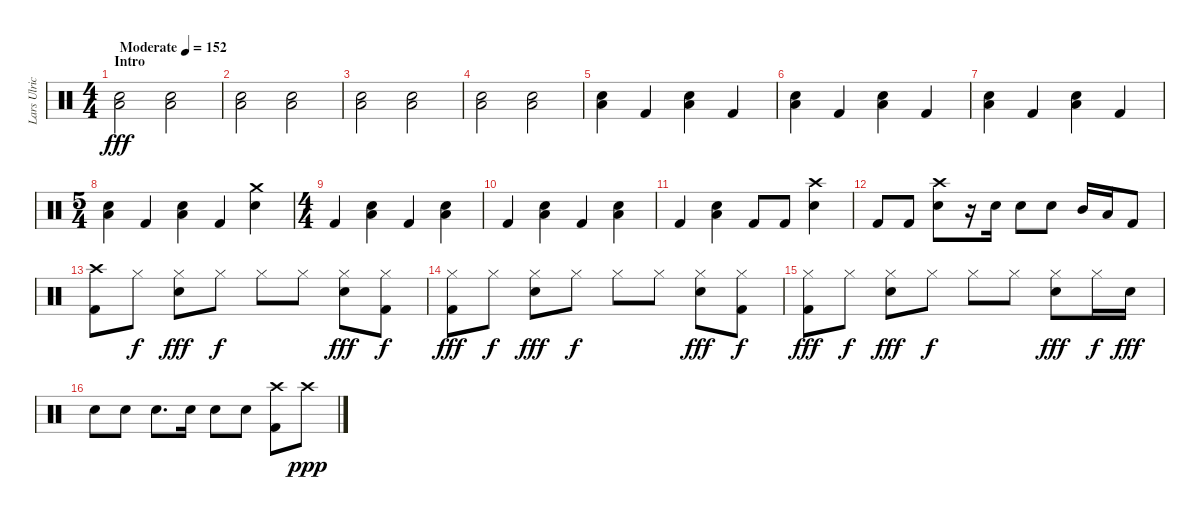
\track ("Lars Ulrich" "Lars Ulric") {instrument percussion}
\staff {score}
\articulation defaults
\ts (4 4)
\section ("" "Intro")
\tempo (152 "Moderate")
\clef neutral
\ks c
("Snare (hit) 2" "Low Floor Tom (hit)").2{dy fff} ("Snare (hit) 2" "Low Floor Tom (hit)").2 |
("Snare (hit) 2" "Low Floor Tom (hit)").2 ("Snare (hit) 2" "Low Floor Tom (hit)").2 |
("Snare (hit) 2" "Low Floor Tom (hit)").2 ("Snare (hit) 2" "Low Floor Tom (hit)").2 |
("Snare (hit) 2" "Low Floor Tom (hit)").2 ("Snare (hit) 2" "Low Floor Tom (hit)").2 |
("Snare (hit) 2" "Low Floor Tom (hit)").4 "Kick (hit) 2".4 ("Snare (hit) 2" "Low Floor Tom (hit)").4 "Kick (hit) 2".4 |
("Snare (hit) 2" "Low Floor Tom (hit)").4 "Kick (hit) 2".4 ("Snare (hit) 2" "Low Floor Tom (hit)").4 "Kick (hit) 2".4 |
("Snare (hit) 2" "Low Floor Tom (hit)").4 "Kick (hit) 2".4 ("Snare (hit) 2" "Low Floor Tom (hit)").4 "Kick (hit) 2".4 |
\ts (5 4)
("Snare (hit) 2" "Low Floor Tom (hit)").4 "Kick (hit) 2".4 ("Snare (hit) 2" "Low Floor Tom (hit)").4 "Kick (hit) 2".4 ("Crash medium (hit)" "Snare (hit) 2").4 |
\ts (4 4)
"Kick (hit) 2".4 ("Low Floor Tom (hit)" "Snare (hit) 2").4 "Kick (hit) 2".4 ("Low Floor Tom (hit)" "Snare (hit) 2").4 |
"Kick (hit) 2".4 ("Low Floor Tom (hit)" "Snare (hit) 2").4 "Kick (hit) 2".4 ("Low Floor Tom (hit)" "Snare (hit) 2").4 |
"Kick (hit) 2".4 ("Low Floor Tom (hit)" "Snare (hit) 2").4 "Kick (hit) 2".8 "Kick (hit) 2".8 ("Crash high (hit)" "Snare (hit) 2").4 |
"Kick (hit) 2".8 "Kick (hit) 2".8 ("Crash high (hit)" "Snare (hit) 2").8 r.16 "Snare (hit) 2".16 "Snare (hit) 2".8 "Snare (hit) 2".8 "Mid Tom (hit)".16 "Low Tom (hit)".16 "Kick (hit) 2".8 |
("Crash high (hit)" "Kick (hit) 2").8 "Hi-Hat (closed)".8{dy f} ("Hi-Hat (closed)" "Snare (hit) 2").8{dy fff} "Hi-Hat (closed)".8{dy f} "Hi-Hat (closed)".8 "Hi-Hat (closed)".8 ("Hi-Hat (closed)" "Snare (hit) 2").8{dy fff} ("Hi-Hat (closed)" "Kick (hit) 2").8{dy f} |
("Hi-Hat (closed)" "Kick (hit) 2").8{dy fff} "Hi-Hat (closed)".8{dy f} ("Hi-Hat (closed)" "Snare (hit) 2").8{dy fff} "Hi-Hat (closed)".8{dy f} "Hi-Hat (closed)".8 "Hi-Hat (closed)".8 ("Hi-Hat (closed)" "Snare (hit) 2").8{dy fff} ("Hi-Hat (closed)" "Kick (hit) 2").8{dy f} |
("Hi-Hat (closed)" "Kick (hit) 2").8{dy fff} "Hi-Hat (closed)".8{dy f} ("Hi-Hat (closed)" "Snare (hit) 2").8{dy fff} "Hi-Hat (closed)".8{dy f} "Hi-Hat (closed)".8 "Hi-Hat (closed)".8 ("Hi-Hat (closed)" "Snare (hit) 2").8{dy fff} "Hi-Hat (closed)".16{dy f} "Snare (hit) 2".16{dy fff} |
"Snare (hit) 2".8 "Snare (hit) 2".8 "Snare (hit) 2".8{d} "Snare (hit) 2".16 "Snare (hit) 2".8 "Snare (hit) 2".8 ("Crash high (hit)" "Kick (hit) 2").8 "Crash high (hit)".8{dy ppp}
